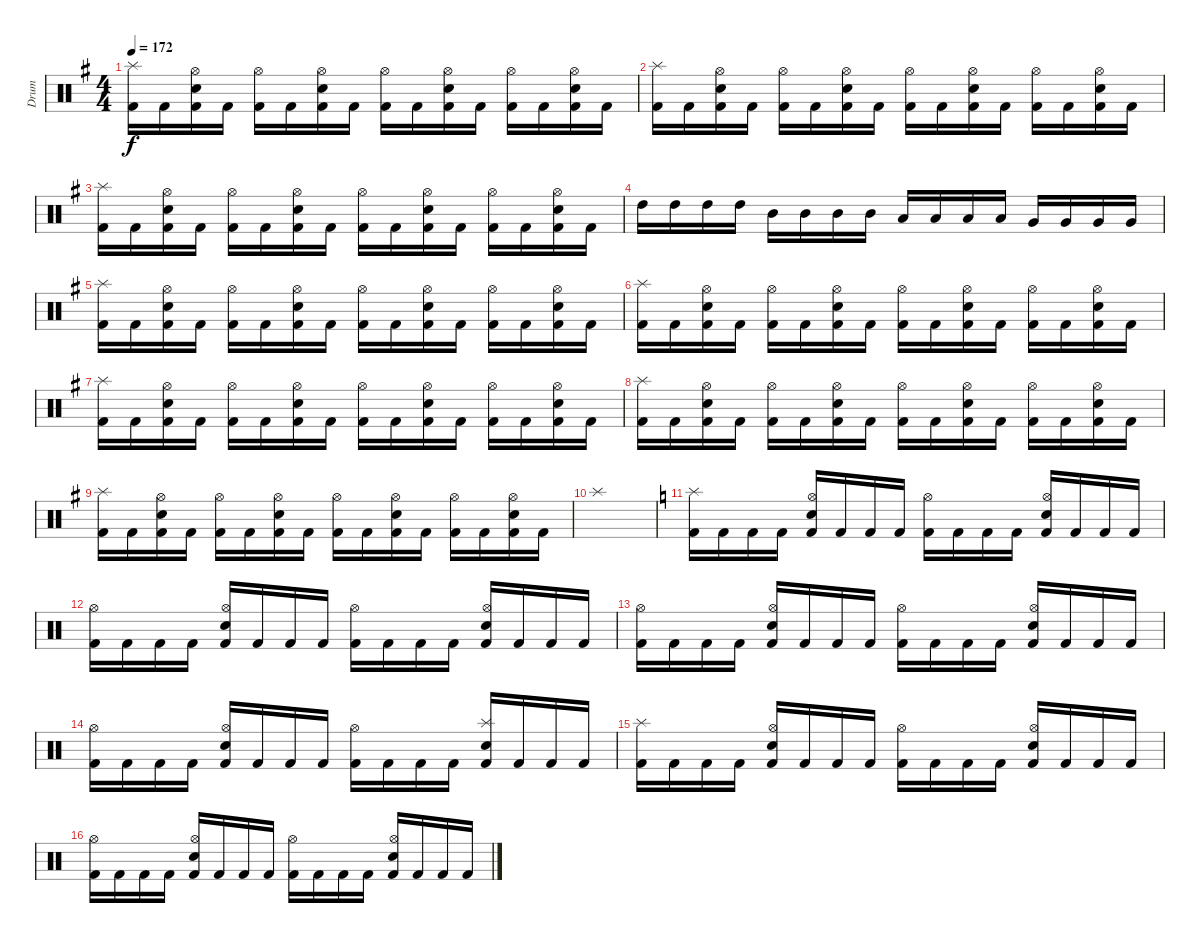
\track ("Drum" "Drum") {instrument percussion}
\staff {score}
\articulation defaults
\ts (4 4)
\tempo 172
\clef neutral
\ks eminor
("Kick (hit) 2" "Splash (hit)").16{dy f} "Kick (hit) 2".16 ("Kick (hit) 2" "Hi-Hat (open)" "Electric Snare (hit)").16 "Kick (hit) 2".16 ("Kick (hit) 2" "Hi-Hat (open)").16 "Kick (hit) 2".16 ("Kick (hit) 2" "Hi-Hat (open)" "Electric Snare (hit)").16 "Kick (hit) 2".16 ("Kick (hit) 2" "Hi-Hat (open)").16 "Kick (hit) 2".16 ("Kick (hit) 2" "Hi-Hat (open)" "Electric Snare (hit)").16 "Kick (hit) 2".16 ("Kick (hit) 2" "Hi-Hat (open)").16 "Kick (hit) 2".16 ("Kick (hit) 2" "Hi-Hat (open)" "Electric Snare (hit)").16 "Kick (hit) 2".16 |
("Kick (hit) 2" "Splash (hit)").16 "Kick (hit) 2".16 ("Kick (hit) 2" "Hi-Hat (open)" "Electric Snare (hit)").16 "Kick (hit) 2".16 ("Kick (hit) 2" "Hi-Hat (open)").16 "Kick (hit) 2".16 ("Kick (hit) 2" "Hi-Hat (open)" "Electric Snare (hit)").16 "Kick (hit) 2".16 ("Kick (hit) 2" "Hi-Hat (open)").16 "Kick (hit) 2".16 ("Kick (hit) 2" "Hi-Hat (open)" "Electric Snare (hit)").16 "Kick (hit) 2".16 ("Kick (hit) 2" "Hi-Hat (open)").16 "Kick (hit) 2".16 ("Kick (hit) 2" "Hi-Hat (open)" "Electric Snare (hit)").16 "Kick (hit) 2".16 |
("Kick (hit) 2" "Splash (hit)").16 "Kick (hit) 2".16 ("Kick (hit) 2" "Hi-Hat (open)" "Electric Snare (hit)").16 "Kick (hit) 2".16 ("Kick (hit) 2" "Hi-Hat (open)").16 "Kick (hit) 2".16 ("Kick (hit) 2" "Hi-Hat (open)" "Electric Snare (hit)").16 "Kick (hit) 2".16 ("Kick (hit) 2" "Hi-Hat (open)").16 "Kick (hit) 2".16 ("Kick (hit) 2" "Hi-Hat (open)" "Electric Snare (hit)").16 "Kick (hit) 2".16 ("Kick (hit) 2" "Hi-Hat (open)").16 "Kick (hit) 2".16 ("Kick (hit) 2" "Hi-Hat (open)" "Electric Snare (hit)").16 "Kick (hit) 2".16 |
"High Tom (hit)".16 "High Tom (hit)".16 "High Tom (hit)".16 "High Tom (hit)".16 "Mid Tom (hit)".16 "Mid Tom (hit)".16 "Mid Tom (hit)".16 "Mid Tom (hit)".16 "Low Tom (hit)".16 "Low Tom (hit)".16 "Low Tom (hit)".16 "Low Tom (hit)".16 "Very Low Tom (hit)".16 "Very Low Tom (hit)".16 "Very Low Tom (hit)".16 "Very Low Tom (hit)".16 |
("Kick (hit) 2" "Splash (hit)").16 "Kick (hit) 2".16 ("Kick (hit) 2" "Hi-Hat (open)" "Electric Snare (hit)").16 "Kick (hit) 2".16 ("Kick (hit) 2" "Hi-Hat (open)").16 "Kick (hit) 2".16 ("Kick (hit) 2" "Hi-Hat (open)" "Electric Snare (hit)").16 "Kick (hit) 2".16 ("Kick (hit) 2" "Hi-Hat (open)").16 "Kick (hit) 2".16 ("Kick (hit) 2" "Hi-Hat (open)" "Electric Snare (hit)").16 "Kick (hit) 2".16 ("Kick (hit) 2" "Hi-Hat (open)").16 "Kick (hit) 2".16 ("Kick (hit) 2" "Hi-Hat (open)" "Electric Snare (hit)").16 "Kick (hit) 2".16 |
("Kick (hit) 2" "Splash (hit)").16 "Kick (hit) 2".16 ("Kick (hit) 2" "Hi-Hat (open)" "Electric Snare (hit)").16 "Kick (hit) 2".16 ("Kick (hit) 2" "Hi-Hat (open)").16 "Kick (hit) 2".16 ("Kick (hit) 2" "Hi-Hat (open)" "Electric Snare (hit)").16 "Kick (hit) 2".16 ("Kick (hit) 2" "Hi-Hat (open)").16 "Kick (hit) 2".16 ("Kick (hit) 2" "Hi-Hat (open)" "Electric Snare (hit)").16 "Kick (hit) 2".16 ("Kick (hit) 2" "Hi-Hat (open)").16 "Kick (hit) 2".16 ("Kick (hit) 2" "Hi-Hat (open)" "Electric Snare (hit)").16 "Kick (hit) 2".16 |
("Kick (hit) 2" "Splash (hit)").16 "Kick (hit) 2".16 ("Kick (hit) 2" "Hi-Hat (open)" "Electric Snare (hit)").16 "Kick (hit) 2".16 ("Kick (hit) 2" "Hi-Hat (open)").16 "Kick (hit) 2".16 ("Kick (hit) 2" "Hi-Hat (open)" "Electric Snare (hit)").16 "Kick (hit) 2".16 ("Kick (hit) 2" "Hi-Hat (open)").16 "Kick (hit) 2".16 ("Kick (hit) 2" "Hi-Hat (open)" "Electric Snare (hit)").16 "Kick (hit) 2".16 ("Kick (hit) 2" "Hi-Hat (open)").16 "Kick (hit) 2".16 ("Kick (hit) 2" "Hi-Hat (open)" "Electric Snare (hit)").16 "Kick (hit) 2".16 |
("Kick (hit) 2" "Splash (hit)").16 "Kick (hit) 2".16 ("Kick (hit) 2" "Hi-Hat (open)" "Electric Snare (hit)").16 "Kick (hit) 2".16 ("Kick (hit) 2" "Hi-Hat (open)").16 "Kick (hit) 2".16 ("Kick (hit) 2" "Hi-Hat (open)" "Electric Snare (hit)").16 "Kick (hit) 2".16 ("Kick (hit) 2" "Hi-Hat (open)").16 "Kick (hit) 2".16 ("Kick (hit) 2" "Hi-Hat (open)" "Electric Snare (hit)").16 "Kick (hit) 2".16 ("Kick (hit) 2" "Hi-Hat (open)").16 "Kick (hit) 2".16 ("Kick (hit) 2" "Hi-Hat (open)" "Electric Snare (hit)").16 "Kick (hit) 2".16 |
("Kick (hit) 2" "Splash (hit)").16 "Kick (hit) 2".16 ("Kick (hit) 2" "Hi-Hat (open)" "Electric Snare (hit)").16 "Kick (hit) 2".16 ("Kick (hit) 2" "Hi-Hat (open)").16 "Kick (hit) 2".16 ("Kick (hit) 2" "Hi-Hat (open)" "Electric Snare (hit)").16 "Kick (hit) 2".16 ("Kick (hit) 2" "Hi-Hat (open)").16 "Kick (hit) 2".16 ("Kick (hit) 2" "Hi-Hat (open)" "Electric Snare (hit)").16 "Kick (hit) 2".16 ("Kick (hit) 2" "Hi-Hat (open)").16 "Kick (hit) 2".16 ("Kick (hit) 2" "Hi-Hat (open)" "Electric Snare (hit)").16 "Kick (hit) 2".16 |
"Splash (hit)".1 |
\ks c
("Kick (hit) 2" "Splash (hit)").16 "Kick (hit) 2".16 "Kick (hit) 2".16 "Kick (hit) 2".16 ("Kick (hit) 2" "Hi-Hat (open)" "Electric Snare (hit)").16 "Kick (hit) 2".16 "Kick (hit) 2".16 "Kick (hit) 2".16 ("Kick (hit) 2" "Hi-Hat (open)").16 "Kick (hit) 2".16 "Kick (hit) 2".16 "Kick (hit) 2".16 ("Kick (hit) 2" "Hi-Hat (open)" "Electric Snare (hit)").16 "Kick (hit) 2".16 "Kick (hit) 2".16 "Kick (hit) 2".16 |
("Kick (hit) 2" "Hi-Hat (open)").16 "Kick (hit) 2".16 "Kick (hit) 2".16 "Kick (hit) 2".16 ("Kick (hit) 2" "Hi-Hat (open)" "Electric Snare (hit)").16 "Kick (hit) 2".16 "Kick (hit) 2".16 "Kick (hit) 2".16 ("Kick (hit) 2" "Hi-Hat (open)").16 "Kick (hit) 2".16 "Kick (hit) 2".16 "Kick (hit) 2".16 ("Kick (hit) 2" "Hi-Hat (open)" "Electric Snare (hit)").16 "Kick (hit) 2".16 "Kick (hit) 2".16 "Kick (hit) 2".16 |
("Kick (hit) 2" "Hi-Hat (open)").16 "Kick (hit) 2".16 "Kick (hit) 2".16 "Kick (hit) 2".16 ("Kick (hit) 2" "Hi-Hat (open)" "Electric Snare (hit)").16 "Kick (hit) 2".16 "Kick (hit) 2".16 "Kick (hit) 2".16 ("Kick (hit) 2" "Hi-Hat (open)").16 "Kick (hit) 2".16 "Kick (hit) 2".16 "Kick (hit) 2".16 ("Kick (hit) 2" "Hi-Hat (open)" "Electric Snare (hit)").16 "Kick (hit) 2".16 "Kick (hit) 2".16 "Kick (hit) 2".16 |
("Kick (hit) 2" "Hi-Hat (open)").16 "Kick (hit) 2".16 "Kick (hit) 2".16 "Kick (hit) 2".16 ("Kick (hit) 2" "Hi-Hat (open)" "Electric Snare (hit)").16 "Kick (hit) 2".16 "Kick (hit) 2".16 "Kick (hit) 2".16 ("Kick (hit) 2" "Hi-Hat (open)").16 "Kick (hit) 2".16 "Kick (hit) 2".16 "Kick (hit) 2".16 ("Kick (hit) 2" "Splash (hit)" "Electric Snare (hit)").16 "Kick (hit) 2".16 "Kick (hit) 2".16 "Kick (hit) 2".16 |
("Kick (hit) 2" "Splash (hit)").16 "Kick (hit) 2".16 "Kick (hit) 2".16 "Kick (hit) 2".16 ("Kick (hit) 2" "Hi-Hat (open)" "Electric Snare (hit)").16 "Kick (hit) 2".16 "Kick (hit) 2".16 "Kick (hit) 2".16 ("Kick (hit) 2" "Hi-Hat (open)").16 "Kick (hit) 2".16 "Kick (hit) 2".16 "Kick (hit) 2".16 ("Kick (hit) 2" "Hi-Hat (open)" "Electric Snare (hit)").16 "Kick (hit) 2".16 "Kick (hit) 2".16 "Kick (hit) 2".16 |
("Kick (hit) 2" "Hi-Hat (open)").16 "Kick (hit) 2".16 "Kick (hit) 2".16 "Kick (hit) 2".16 ("Kick (hit) 2" "Hi-Hat (open)" "Electric Snare (hit)").16 "Kick (hit) 2".16 "Kick (hit) 2".16 "Kick (hit) 2".16 ("Kick (hit) 2" "Hi-Hat (open)").16 "Kick (hit) 2".16 "Kick (hit) 2".16 "Kick (hit) 2".16 ("Kick (hit) 2" "Hi-Hat (open)" "Electric Snare (hit)").16 "Kick (hit) 2".16 "Kick (hit) 2".16 "Kick (hit) 2".16
